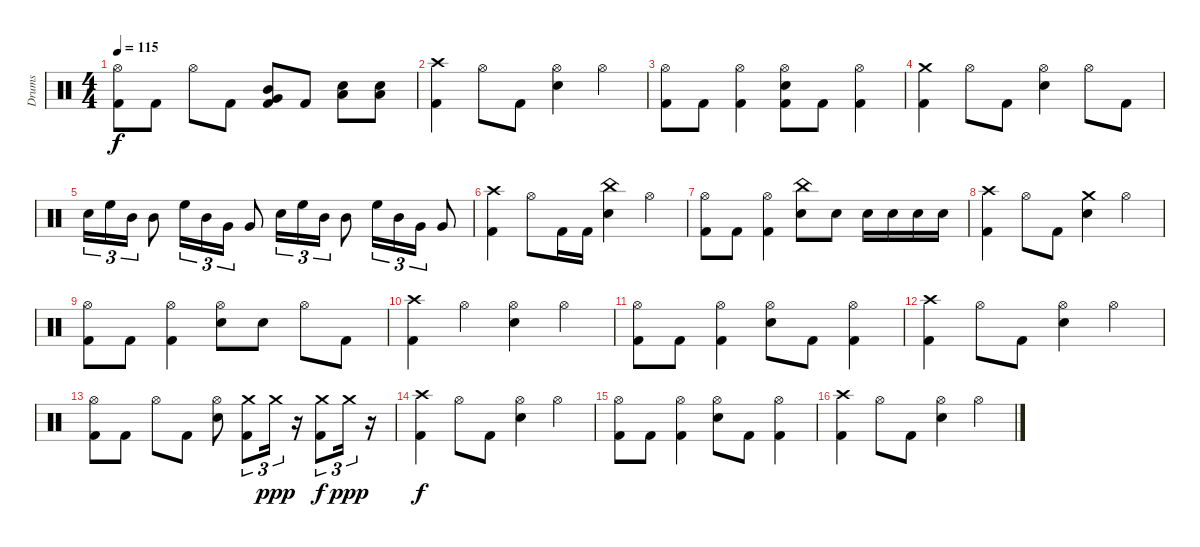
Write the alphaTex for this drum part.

\track ("Drums" "Drums") {instrument percussion}
\staff {score}
\articulation defaults
\ts (4 4)
\tempo 115
\clef neutral
\ks c
("Hi-Hat (open)" "Kick (hit) 2").8{dy f} "Kick (hit) 2".8 "Hi-Hat (open)".8 "Kick (hit) 2".8 ("Mid Tom (hit)" "Very Low Tom (hit)" "Kick (hit) 2").8 "Kick (hit) 2".8 ("Low Floor Tom (hit)" "Electric Snare (hit)").8 ("Low Floor Tom (hit)" "Electric Snare (hit)").8 |
("Crash high (hit)" "Kick (hit) 2").4 "Hi-Hat (open)".8 "Kick (hit) 2".8 ("Hi-Hat (open)" "Electric Snare (hit)").4 "Hi-Hat (open)".4 |
("Hi-Hat (open)" "Kick (hit) 2").8 "Kick (hit) 2".8 ("Hi-Hat (open)" "Kick (hit) 2").4 ("Hi-Hat (open)" "Electric Snare (hit)" "Kick (hit) 2").8 "Kick (hit) 2".8 ("Hi-Hat (open)" "Kick (hit) 2").4 |
("Crash medium (hit)" "Kick (hit) 2").4 "Hi-Hat (open)".8 "Kick (hit) 2".8 ("Hi-Hat (open)" "Electric Snare (hit)").4 "Hi-Hat (open)".8 "Kick (hit) 2".8 |
"Electric Snare (hit)".16{tu (3 2)} "High Floor Tom (hit)".16{tu (3 2)} "Mid Tom (hit)".16{tu (3 2)} "Mid Tom (hit)".8 "High Floor Tom (hit)".16{tu (3 2)} "Mid Tom (hit)".16{tu (3 2)} "Very Low Tom (hit)".16{tu (3 2)} "Very Low Tom (hit)".8 "Electric Snare (hit)".16{tu (3 2)} "High Floor Tom (hit)".16{tu (3 2)} "Mid Tom (hit)".16{tu (3 2)} "Mid Tom (hit)".8 "High Floor Tom (hit)".16{tu (3 2)} "Mid Tom (hit)".16{tu (3 2)} "Very Low Tom (hit)".16{tu (3 2)} "Very Low Tom (hit)".8 |
("Crash high (hit)" "Kick (hit) 2").4{volume 11} "Hi-Hat (open)".8 "Kick (hit) 2".16 "Kick (hit) 2".16 ("China (hit)" "Electric Snare (hit)").4 "Hi-Hat (open)".4 |
("Hi-Hat (open)" "Kick (hit) 2").8 "Kick (hit) 2".8 ("Hi-Hat (open)" "Kick (hit) 2").4 ("China (hit)" "Electric Snare (hit)").8 "Electric Snare (hit)".8 "Electric Snare (hit)".16 "Electric Snare (hit)".16 "Electric Snare (hit)".16 "Electric Snare (hit)".16 |
("Crash high (hit)" "Kick (hit) 2").4 "Hi-Hat (open)".8 "Kick (hit) 2".8 ("Crash medium (hit)" "Electric Snare (hit)").4 "Hi-Hat (open)".4 |
("Hi-Hat (open)" "Kick (hit) 2").8 "Kick (hit) 2".8 ("Hi-Hat (open)" "Kick (hit) 2").4 ("Hi-Hat (open)" "Electric Snare (hit)").8 "Electric Snare (hit)".8 "Hi-Hat (open)".8 "Kick (hit) 2".8 |
("Crash high (hit)" "Kick (hit) 2").4{volume 6} "Hi-Hat (open)".4 ("Hi-Hat (open)" "Electric Snare (hit)").4 "Hi-Hat (open)".4 |
("Hi-Hat (open)" "Kick (hit) 2").8 "Kick (hit) 2".8 ("Hi-Hat (open)" "Kick (hit) 2").4 ("Hi-Hat (open)" "Electric Snare (hit)").8 "Kick (hit) 2".8 ("Hi-Hat (open)" "Kick (hit) 2").4 |
("Crash high (hit)" "Kick (hit) 2").4 "Hi-Hat (open)".8 "Kick (hit) 2".8 ("Hi-Hat (open)" "Electric Snare (hit)").4 "Hi-Hat (open)".4 |
("Hi-Hat (open)" "Kick (hit) 2").8 "Kick (hit) 2".8 "Hi-Hat (open)".8 "Kick (hit) 2".8 ("Hi-Hat (open)" "Electric Snare (hit)").8 ("Crash medium (hit)" "Kick (hit) 2").8{tu (3 2)} "Crash medium (hit)".16{tu (3 2) dy ppp} r.16 ("Crash medium (hit)" "Kick (hit) 2").8{tu (3 2) dy f} "Crash medium (hit)".16{tu (3 2) dy ppp} r.16 |
("Crash high (hit)" "Kick (hit) 2").4{dy f} "Hi-Hat (open)".8 "Kick (hit) 2".8 ("Hi-Hat (open)" "Electric Snare (hit)").4 "Hi-Hat (open)".4 |
("Hi-Hat (open)" "Kick (hit) 2").8{volume 5} "Kick (hit) 2".8 ("Hi-Hat (open)" "Kick (hit) 2").4 ("Hi-Hat (open)" "Electric Snare (hit)").8 "Kick (hit) 2".8 ("Hi-Hat (open)" "Kick (hit) 2").4 |
("Crash high (hit)" "Kick (hit) 2").4{volume 4} "Hi-Hat (open)".8 "Kick (hit) 2".8 ("Hi-Hat (open)" "Electric Snare (hit)").4 "Hi-Hat (open)".4
